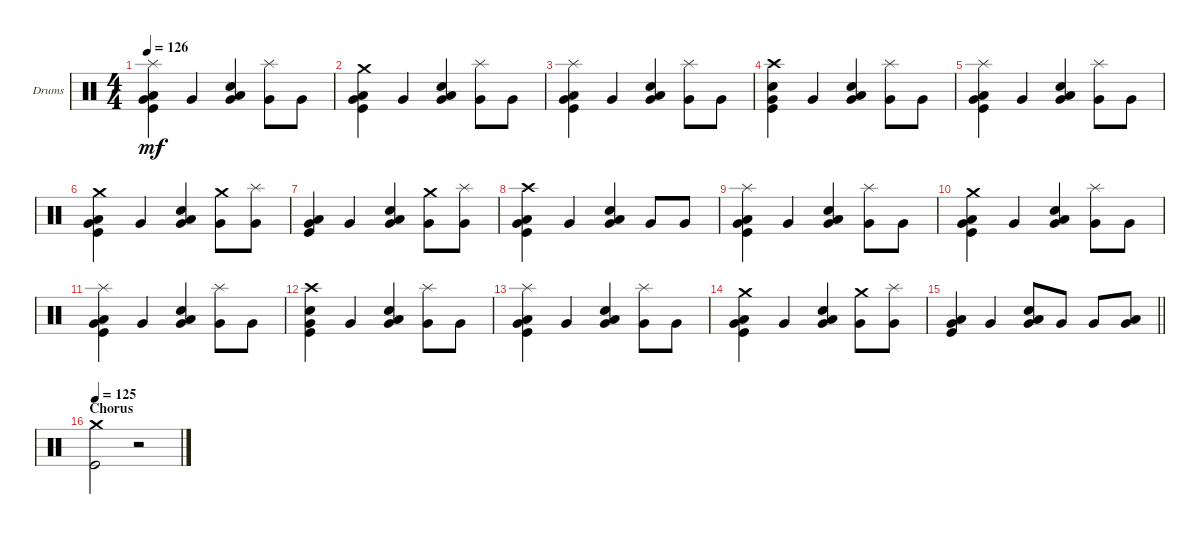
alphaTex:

\defaultSystemsLayout 4
\bracketExtendMode groupsimilarinstruments
\firstSystemTrackNameOrientation horizontal
\otherSystemsTrackNameOrientation horizontal
\chordDiagramsInScore
\track ("Drumkit" "Drums") {instrument percussion}
\staff {score}
\articulation defaults
\ts (4 4)
\tempo 126
\clef neutral
\scale
0.333333
\ks c
("Very Low Tom (hit)" "Low Tom (hit)" "Kick (hit)" "Splash (hit)").4{dy mf} "Very Low Tom (hit)".4 ("Very Low Tom (hit)" "Low Tom (hit)" "Snare (hit) 2").4 ("Very Low Tom (hit)" "Splash (hit)").8 "Very Low Tom (hit)".8 |
\scale
0.333333 ("Very Low Tom (hit)" "Low Tom (hit)" "Crash medium (hit)" "Kick (hit)").4 "Very Low Tom (hit)".4 ("Very Low Tom (hit)" "Low Tom (hit)" "Snare (hit) 2").4 ("Very Low Tom (hit)" "Splash (hit)").8 "Very Low Tom (hit)".8 |
\scale
0.333333 ("Very Low Tom (hit)" "Low Tom (hit)" "Kick (hit)" "Splash (hit)").4 "Very Low Tom (hit)".4 ("Very Low Tom (hit)" "Low Tom (hit)" "Snare (hit) 2").4 ("Very Low Tom (hit)" "Splash (hit)").8 "Very Low Tom (hit)".8 |
\scale
0.333333 ("Very Low Tom (hit)" "Snare (hit) 2" "Crash high (hit)" "Kick (hit)").4 "Very Low Tom (hit)".4 ("Very Low Tom (hit)" "Low Tom (hit)" "Snare (hit) 2").4 ("Very Low Tom (hit)" "Splash (hit)").8 "Very Low Tom (hit)".8 |
\scale
0.333333 ("Very Low Tom (hit)" "Low Tom (hit)" "Kick (hit)" "Splash (hit)").4 "Very Low Tom (hit)".4 ("Very Low Tom (hit)" "Low Tom (hit)" "Snare (hit) 2").4 ("Very Low Tom (hit)" "Splash (hit)").8 "Very Low Tom (hit)".8 |
\scale
0.333333 ("Very Low Tom (hit)" "Low Tom (hit)" "Crash medium (hit)" "Kick (hit)").4 "Very Low Tom (hit)".4 ("Very Low Tom (hit)" "Low Tom (hit)" "Snare (hit) 2").4 ("Very Low Tom (hit)" "Crash medium (hit)").8 ("Very Low Tom (hit)" "Splash (hit)").8 |
\scale
0.333333 ("Very Low Tom (hit)" "Low Tom (hit)" "Kick (hit)").4 "Very Low Tom (hit)".4 ("Very Low Tom (hit)" "Low Tom (hit)" "Snare (hit) 2").4 ("Very Low Tom (hit)" "Crash medium (hit)").8 ("Very Low Tom (hit)" "Splash (hit)").8 |
\scale
0.333333 ("Very Low Tom (hit)" "Crash high (hit)" "Kick (hit)" "Low Tom (hit)").4 "Very Low Tom (hit)".4 ("Very Low Tom (hit)" "Low Tom (hit)" "Snare (hit) 2").4 "Very Low Tom (hit)".8 "Very Low Tom (hit)".8 |
\scale
0.333333 ("Very Low Tom (hit)" "Low Tom (hit)" "Kick (hit)" "Splash (hit)").4 "Very Low Tom (hit)".4 ("Very Low Tom (hit)" "Low Tom (hit)" "Snare (hit) 2").4 ("Very Low Tom (hit)" "Splash (hit)").8 "Very Low Tom (hit)".8 |
\scale
0.333333 ("Very Low Tom (hit)" "Low Tom (hit)" "Crash medium (hit)" "Kick (hit)").4 "Very Low Tom (hit)".4 ("Very Low Tom (hit)" "Low Tom (hit)" "Snare (hit) 2").4 ("Very Low Tom (hit)" "Splash (hit)").8 "Very Low Tom (hit)".8 |
\scale
0.333333 ("Very Low Tom (hit)" "Low Tom (hit)" "Kick (hit)" "Splash (hit)").4 "Very Low Tom (hit)".4 ("Very Low Tom (hit)" "Low Tom (hit)" "Snare (hit) 2").4 ("Very Low Tom (hit)" "Splash (hit)").8 "Very Low Tom (hit)".8 |
\scale
0.333333 ("Very Low Tom (hit)" "Snare (hit) 2" "Crash high (hit)" "Kick (hit)").4 "Very Low Tom (hit)".4 ("Very Low Tom (hit)" "Low Tom (hit)" "Snare (hit) 2").4 ("Very Low Tom (hit)" "Splash (hit)").8 "Very Low Tom (hit)".8 |
\scale
0.333333 ("Very Low Tom (hit)" "Low Tom (hit)" "Kick (hit)" "Splash (hit)").4 "Very Low Tom (hit)".4 ("Very Low Tom (hit)" "Low Tom (hit)" "Snare (hit) 2").4 ("Very Low Tom (hit)" "Splash (hit)").8 "Very Low Tom (hit)".8 |
\scale
0.333333 ("Very Low Tom (hit)" "Low Tom (hit)" "Crash medium (hit)" "Kick (hit)").4 "Very Low Tom (hit)".4 ("Very Low Tom (hit)" "Low Tom (hit)" "Snare (hit) 2").4 ("Very Low Tom (hit)" "Crash medium (hit)").8 ("Very Low Tom (hit)" "Splash (hit)").8 |
\scale
0.333333
\barLineRight lightlight
("Very Low Tom (hit)" "Low Tom (hit)" "Kick (hit)").4 "Very Low Tom (hit)".4 ("Very Low Tom (hit)" "Low Tom (hit)" "Snare (hit) 2").8 "Very Low Tom (hit)".8 "Very Low Tom (hit)".8 ("Low Tom (hit)" "Very Low Tom (hit)").8 |
\section ("" "Chorus")
\tempo 125
\scale
0.333333 ("Kick (hit)" "Crash medium (hit)").2 r.2
